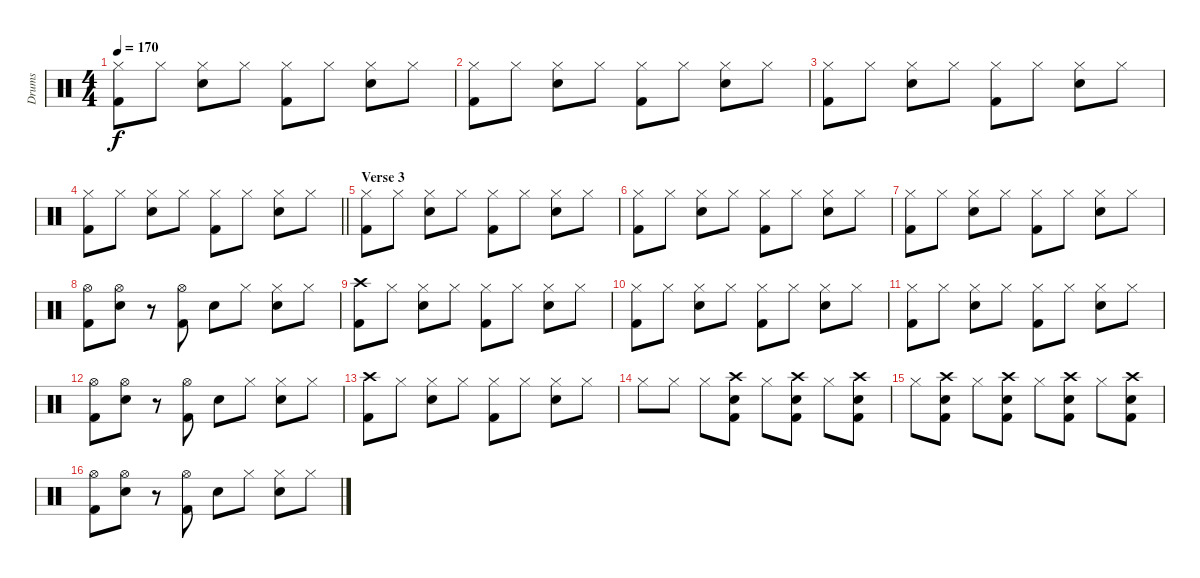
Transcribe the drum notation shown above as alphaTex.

\track ("Drums" "Drums") {instrument percussion}
\staff {score}
\articulation defaults
\ts (4 4)
\tempo 170
\clef neutral
\ks c
("Hi-Hat (closed)" "Kick (hit) 2").8{dy f} "Hi-Hat (closed)".8 ("Hi-Hat (closed)" "Snare (hit) 2").8 "Hi-Hat (closed)".8 ("Hi-Hat (closed)" "Kick (hit) 2").8 "Hi-Hat (closed)".8 ("Hi-Hat (closed)" "Snare (hit) 2").8 "Hi-Hat (closed)".8 |
("Hi-Hat (closed)" "Kick (hit) 2").8 "Hi-Hat (closed)".8 ("Hi-Hat (closed)" "Snare (hit) 2").8 "Hi-Hat (closed)".8 ("Hi-Hat (closed)" "Kick (hit) 2").8 "Hi-Hat (closed)".8 ("Hi-Hat (closed)" "Snare (hit) 2").8 "Hi-Hat (closed)".8 |
("Hi-Hat (closed)" "Kick (hit) 2").8 "Hi-Hat (closed)".8 ("Hi-Hat (closed)" "Snare (hit) 2").8 "Hi-Hat (closed)".8 ("Hi-Hat (closed)" "Kick (hit) 2").8 "Hi-Hat (closed)".8 ("Hi-Hat (closed)" "Snare (hit) 2").8 "Hi-Hat (closed)".8 |
\barLineRight lightlight
("Hi-Hat (closed)" "Kick (hit) 2").8 "Hi-Hat (closed)".8 ("Hi-Hat (closed)" "Snare (hit) 2").8 "Hi-Hat (closed)".8 ("Hi-Hat (closed)" "Kick (hit) 2").8 "Hi-Hat (closed)".8 ("Hi-Hat (closed)" "Snare (hit) 2").8 "Hi-Hat (closed)".8 |
\section ("" "Verse 3")
("Hi-Hat (closed)" "Kick (hit) 2").8 "Hi-Hat (closed)".8 ("Hi-Hat (closed)" "Snare (hit) 2").8 "Hi-Hat (closed)".8 ("Hi-Hat (closed)" "Kick (hit) 2").8 "Hi-Hat (closed)".8 ("Hi-Hat (closed)" "Snare (hit) 2").8 "Hi-Hat (closed)".8 |
("Hi-Hat (closed)" "Kick (hit) 2").8 "Hi-Hat (closed)".8 ("Hi-Hat (closed)" "Snare (hit) 2").8 "Hi-Hat (closed)".8 ("Hi-Hat (closed)" "Kick (hit) 2").8 "Hi-Hat (closed)".8 ("Hi-Hat (closed)" "Snare (hit) 2").8 "Hi-Hat (closed)".8 |
("Hi-Hat (closed)" "Kick (hit) 2").8 "Hi-Hat (closed)".8 ("Hi-Hat (closed)" "Snare (hit) 2").8 "Hi-Hat (closed)".8 ("Hi-Hat (closed)" "Kick (hit) 2").8 "Hi-Hat (closed)".8 ("Hi-Hat (closed)" "Snare (hit) 2").8 "Hi-Hat (closed)".8 |
("Hi-Hat (open)" "Kick (hit) 2").8 ("Hi-Hat (open)" "Snare (hit) 2").8 r.8 ("Hi-Hat (open)" "Kick (hit) 2").8 "Snare (hit) 2".8 "Hi-Hat (closed)".8 ("Hi-Hat (closed)" "Snare (hit) 2").8 "Hi-Hat (closed)".8 |
("Crash high (hit)" "Kick (hit) 2").8 "Hi-Hat (closed)".8 ("Hi-Hat (closed)" "Snare (hit) 2").8 "Hi-Hat (closed)".8 ("Hi-Hat (closed)" "Kick (hit) 2").8 "Hi-Hat (closed)".8 ("Hi-Hat (closed)" "Snare (hit) 2").8 "Hi-Hat (closed)".8 |
("Hi-Hat (closed)" "Kick (hit) 2").8 "Hi-Hat (closed)".8 ("Hi-Hat (closed)" "Snare (hit) 2").8 "Hi-Hat (closed)".8 ("Hi-Hat (closed)" "Kick (hit) 2").8 "Hi-Hat (closed)".8 ("Hi-Hat (closed)" "Snare (hit) 2").8 "Hi-Hat (closed)".8 |
("Hi-Hat (closed)" "Kick (hit) 2").8 "Hi-Hat (closed)".8 ("Hi-Hat (closed)" "Snare (hit) 2").8 "Hi-Hat (closed)".8 ("Hi-Hat (closed)" "Kick (hit) 2").8 "Hi-Hat (closed)".8 ("Hi-Hat (closed)" "Snare (hit) 2").8 "Hi-Hat (closed)".8 |
("Hi-Hat (open)" "Kick (hit) 2").8 ("Hi-Hat (open)" "Snare (hit) 2").8 r.8 ("Hi-Hat (open)" "Kick (hit) 2").8 "Snare (hit) 2".8 "Hi-Hat (closed)".8 ("Hi-Hat (closed)" "Snare (hit) 2").8 "Hi-Hat (closed)".8 |
("Crash high (hit)" "Kick (hit) 2").8 "Hi-Hat (closed)".8 ("Hi-Hat (closed)" "Snare (hit) 2").8 "Hi-Hat (closed)".8 ("Hi-Hat (closed)" "Kick (hit) 2").8 "Hi-Hat (closed)".8 ("Hi-Hat (closed)" "Snare (hit) 2").8 "Hi-Hat (closed)".8 |
"Hi-Hat (closed)".8 "Hi-Hat (closed)".8 "Hi-Hat (closed)".8 ("Crash high (hit)" "Snare (hit) 2" "Kick (hit) 2").8 "Hi-Hat (closed)".8 ("Crash high (hit)" "Snare (hit) 2" "Kick (hit) 2").8 "Hi-Hat (closed)".8 ("Crash high (hit)" "Snare (hit) 2" "Kick (hit) 2").8 |
"Hi-Hat (closed)".8 ("Crash high (hit)" "Snare (hit) 2" "Kick (hit) 2").8 "Hi-Hat (closed)".8 ("Crash high (hit)" "Snare (hit) 2" "Kick (hit) 2").8 "Hi-Hat (closed)".8 ("Crash high (hit)" "Snare (hit) 2" "Kick (hit) 2").8 "Hi-Hat (closed)".8 ("Crash high (hit)" "Snare (hit) 2" "Kick (hit) 2").8 |
("Hi-Hat (open)" "Kick (hit) 2").8 ("Hi-Hat (open)" "Snare (hit) 2").8 r.8 ("Hi-Hat (open)" "Kick (hit) 2").8 "Snare (hit) 2".8 "Hi-Hat (closed)".8 ("Hi-Hat (closed)" "Snare (hit) 2").8 "Hi-Hat (closed)".8
